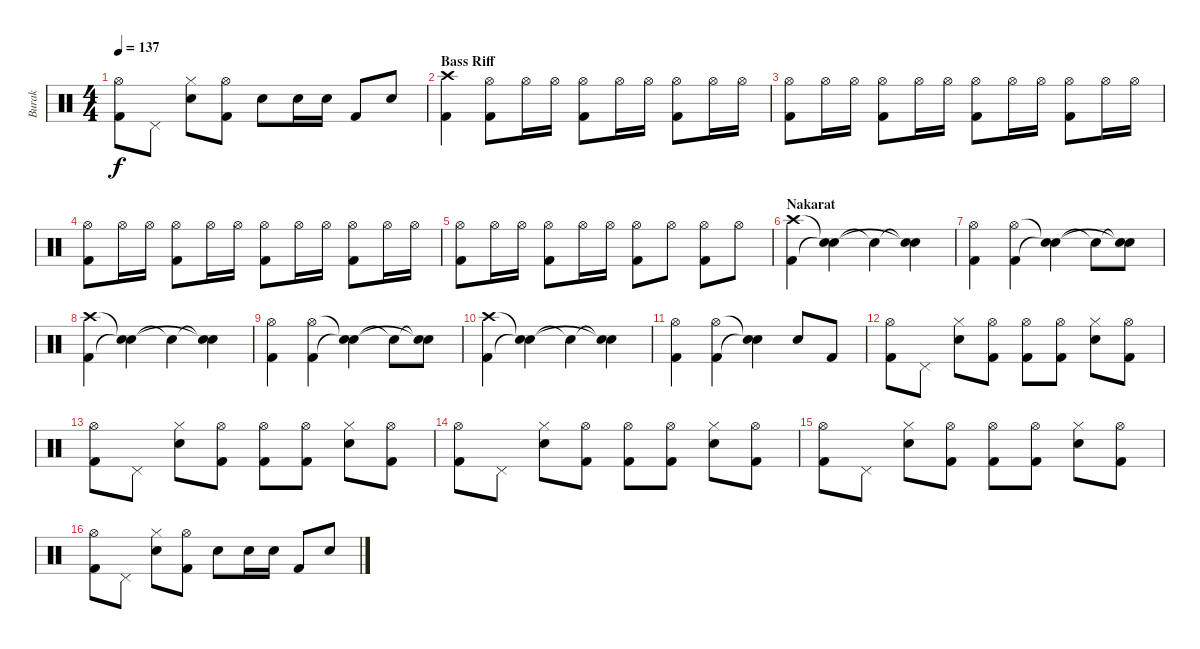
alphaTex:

\track ("Burak" "Burak") {instrument percussion}
\staff {score}
\articulation defaults
\ts (4 4)
\tempo 137
\clef neutral
\ks c
("Kick (hit) 2" "Hi-Hat (open)").8{dy f} "Pedal Hi-Hat (hit)".8 ("Electric Snare (hit)" "Hi-Hat (closed)").8 ("Kick (hit) 2" "Hi-Hat (open)").8 "Electric Snare (hit)".8 "Electric Snare (hit)".16 "Electric Snare (hit)".16 "Kick (hit) 2".8 "Electric Snare (hit)".8 |
\section ("" "Bass Riff")
("Kick (hit) 2" "Crash high (hit)").4{volume 10} ("Hi-Hat (open)" "Kick (hit) 2").8 "Hi-Hat (open)".16 "Hi-Hat (open)".16 ("Hi-Hat (open)" "Kick (hit) 2").8 "Hi-Hat (open)".16 "Hi-Hat (open)".16 ("Hi-Hat (open)" "Kick (hit) 2").8 "Hi-Hat (open)".16 "Hi-Hat (open)".16 |
("Hi-Hat (open)" "Kick (hit) 2").8 "Hi-Hat (open)".16 "Hi-Hat (open)".16 ("Hi-Hat (open)" "Kick (hit) 2").8 "Hi-Hat (open)".16 "Hi-Hat (open)".16 ("Hi-Hat (open)" "Kick (hit) 2").8 "Hi-Hat (open)".16 "Hi-Hat (open)".16 ("Hi-Hat (open)" "Kick (hit) 2").8 "Hi-Hat (open)".16 "Hi-Hat (open)".16 |
("Hi-Hat (open)" "Kick (hit) 2").8 "Hi-Hat (open)".16 "Hi-Hat (open)".16 ("Hi-Hat (open)" "Kick (hit) 2").8 "Hi-Hat (open)".16 "Hi-Hat (open)".16 ("Hi-Hat (open)" "Kick (hit) 2").8 "Hi-Hat (open)".16 "Hi-Hat (open)".16 ("Hi-Hat (open)" "Kick (hit) 2").8 "Hi-Hat (open)".16 "Hi-Hat (open)".16 |
("Hi-Hat (open)" "Kick (hit) 2").8 "Hi-Hat (open)".16 "Hi-Hat (open)".16 ("Hi-Hat (open)" "Kick (hit) 2").8 "Hi-Hat (open)".16 "Hi-Hat (open)".16 ("Hi-Hat (open)" "Kick (hit) 2").8 "Hi-Hat (open)".8 ("Hi-Hat (open)" "Kick (hit) 2").8 "Hi-Hat (open)".8 |
\section ("" "Nakarat")
("Kick (hit) 2" "Crash high (hit)").4{volume 15} ("Snare (hit)"{t} "Snare (hit)"{t}).4 "Snare (hit)"{t}.4 ("Snare (hit)"{t} "Snare (hit)"{t}).4 |
("Kick (hit) 2" "Hi-Hat (open)").4 ("Kick (hit) 2" "Hi-Hat (open)").4 ("Snare (hit)"{t} "Snare (hit)"{t}).4 "Snare (hit)"{t}.8 ("Snare (hit)"{t} "Snare (hit)"{t}).8 |
("Kick (hit) 2" "Crash high (hit)").4{volume 15} ("Snare (hit)"{t} "Snare (hit)"{t}).4 "Snare (hit)"{t}.4 ("Snare (hit)"{t} "Snare (hit)"{t}).4 |
("Kick (hit) 2" "Hi-Hat (open)").4 ("Kick (hit) 2" "Hi-Hat (open)").4 ("Snare (hit)"{t} "Snare (hit)"{t}).4 "Snare (hit)"{t}.8 ("Snare (hit)"{t} "Snare (hit)"{t}).8 |
("Kick (hit) 2" "Crash high (hit)").4{volume 15} ("Snare (hit)"{t} "Snare (hit)"{t}).4 "Snare (hit)"{t}.4 ("Snare (hit)"{t} "Snare (hit)"{t}).4 |
("Kick (hit) 2" "Hi-Hat (open)").4 ("Kick (hit) 2" "Hi-Hat (open)").4 ("Snare (hit)"{t} "Snare (hit)"{t}).4 "Electric Snare (hit)".8 "Kick (hit) 2".8 |
("Kick (hit) 2" "Hi-Hat (open)").8 "Pedal Hi-Hat (hit)".8 ("Electric Snare (hit)" "Hi-Hat (closed)").8 ("Kick (hit) 2" "Hi-Hat (open)").8 ("Kick (hit) 2" "Hi-Hat (open)").8 ("Kick (hit) 2" "Hi-Hat (open)").8 ("Electric Snare (hit)" "Hi-Hat (closed)").8 ("Kick (hit) 2" "Hi-Hat (open)").8 |
("Kick (hit) 2" "Hi-Hat (open)").8 "Pedal Hi-Hat (hit)".8 ("Electric Snare (hit)" "Hi-Hat (closed)").8 ("Kick (hit) 2" "Hi-Hat (open)").8 ("Kick (hit) 2" "Hi-Hat (open)").8 ("Kick (hit) 2" "Hi-Hat (open)").8 ("Electric Snare (hit)" "Hi-Hat (closed)").8 ("Kick (hit) 2" "Hi-Hat (open)").8 |
("Kick (hit) 2" "Hi-Hat (open)").8 "Pedal Hi-Hat (hit)".8 ("Electric Snare (hit)" "Hi-Hat (closed)").8 ("Kick (hit) 2" "Hi-Hat (open)").8 ("Kick (hit) 2" "Hi-Hat (open)").8 ("Kick (hit) 2" "Hi-Hat (open)").8 ("Electric Snare (hit)" "Hi-Hat (closed)").8 ("Kick (hit) 2" "Hi-Hat (open)").8 |
("Kick (hit) 2" "Hi-Hat (open)").8 "Pedal Hi-Hat (hit)".8 ("Electric Snare (hit)" "Hi-Hat (closed)").8 ("Kick (hit) 2" "Hi-Hat (open)").8 ("Kick (hit) 2" "Hi-Hat (open)").8 ("Kick (hit) 2" "Hi-Hat (open)").8 ("Electric Snare (hit)" "Hi-Hat (closed)").8 ("Kick (hit) 2" "Hi-Hat (open)").8 |
("Kick (hit) 2" "Hi-Hat (open)").8 "Pedal Hi-Hat (hit)".8 ("Electric Snare (hit)" "Hi-Hat (closed)").8 ("Kick (hit) 2" "Hi-Hat (open)").8 "Electric Snare (hit)".8 "Electric Snare (hit)".16 "Electric Snare (hit)".16 "Kick (hit) 2".8 "Electric Snare (hit)".8
